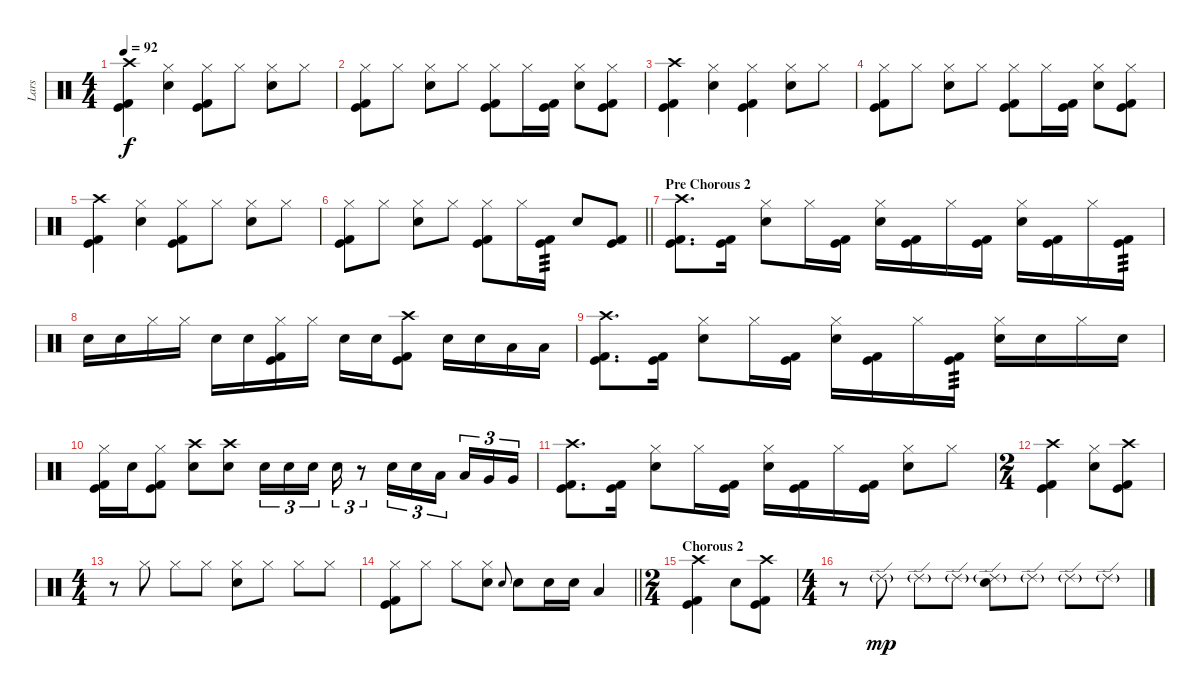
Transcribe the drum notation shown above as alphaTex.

\track ("Lars" "Lars") {instrument percussion}
\staff {score}
\articulation defaults
\ts (4 4)
\tempo 92
\clef neutral
\ks c
("Crash high (hit)" "Kick (hit)" "Kick (hit) 2").4{dy f} ("Hi-Hat (closed)" "Electric Snare (hit)").4 ("Hi-Hat (closed)" "Kick (hit)" "Kick (hit) 2").8 "Hi-Hat (closed)".8 ("Hi-Hat (closed)" "Electric Snare (hit)").8 "Hi-Hat (closed)".8 |
("Hi-Hat (closed)" "Kick (hit)" "Kick (hit) 2").8 "Hi-Hat (closed)".8 ("Hi-Hat (closed)" "Electric Snare (hit)").8 "Hi-Hat (closed)".8 ("Hi-Hat (closed)" "Kick (hit)" "Kick (hit) 2").8 "Hi-Hat (closed)".16 ("Kick (hit)" "Kick (hit) 2").16 ("Hi-Hat (closed)" "Electric Snare (hit)").8 ("Hi-Hat (closed)" "Kick (hit)" "Kick (hit) 2").8 |
("Crash high (hit)" "Kick (hit)" "Kick (hit) 2").4 ("Hi-Hat (closed)" "Electric Snare (hit)").4 ("Hi-Hat (closed)" "Kick (hit)" "Kick (hit) 2").4 ("Hi-Hat (closed)" "Electric Snare (hit)").8 "Hi-Hat (closed)".8 |
("Hi-Hat (closed)" "Kick (hit)" "Kick (hit) 2").8 "Hi-Hat (closed)".8 ("Hi-Hat (closed)" "Electric Snare (hit)").8 "Hi-Hat (closed)".8 ("Hi-Hat (closed)" "Kick (hit)" "Kick (hit) 2").8 "Hi-Hat (closed)".16 ("Kick (hit)" "Kick (hit) 2").16 ("Hi-Hat (closed)" "Electric Snare (hit)").8 ("Hi-Hat (closed)" "Kick (hit)" "Kick (hit) 2").8 |
("Crash high (hit)" "Kick (hit)" "Kick (hit) 2").4 ("Hi-Hat (closed)" "Electric Snare (hit)").4 ("Hi-Hat (closed)" "Kick (hit)" "Kick (hit) 2").8 "Hi-Hat (closed)".8 ("Hi-Hat (closed)" "Electric Snare (hit)").8 "Hi-Hat (closed)".8 |
\barLineRight lightlight
("Hi-Hat (closed)" "Kick (hit)" "Kick (hit) 2").8 "Hi-Hat (closed)".8 ("Hi-Hat (closed)" "Electric Snare (hit)").8 "Hi-Hat (closed)".8 ("Hi-Hat (closed)" "Kick (hit)" "Kick (hit) 2").8 "Hi-Hat (closed)".16 ("Kick (hit)" "Kick (hit) 2").16{tp 3} "Electric Snare (hit)".8 ("Kick (hit)" "Kick (hit) 2").8 |
\section ("" "Pre Chorous 2")
("Crash high (hit)" "Kick (hit)" "Kick (hit) 2").8{d} ("Kick (hit)" "Kick (hit) 2").16 ("Hi-Hat (closed)" "Electric Snare (hit)").8 "Hi-Hat (closed)".16 ("Kick (hit)" "Kick (hit) 2").16 ("Hi-Hat (closed)" "Electric Snare (hit)").16 ("Kick (hit)" "Kick (hit) 2").16 "Hi-Hat (closed)".16 ("Kick (hit)" "Kick (hit) 2").16 ("Hi-Hat (closed)" "Electric Snare (hit)").16 ("Kick (hit)" "Kick (hit) 2").16 "Hi-Hat (closed)".16 ("Kick (hit)" "Kick (hit) 2").16{tp 3} |
"Electric Snare (hit)".16 "Electric Snare (hit)".16 "Hi-Hat (closed)".16 "Hi-Hat (closed)".16 "Electric Snare (hit)".16 "Electric Snare (hit)".16 ("Hi-Hat (closed)" "Kick (hit)" "Kick (hit) 2").16 "Hi-Hat (closed)".16 "Electric Snare (hit)".16 "Electric Snare (hit)".16 ("Crash high (hit)" "Kick (hit)" "Kick (hit) 2").8 "Electric Snare (hit)".16 "Electric Snare (hit)".16 "Low Tom (hit)".16 "Low Tom (hit)".16 |
("Crash high (hit)" "Kick (hit)" "Kick (hit) 2").8{d} ("Kick (hit)" "Kick (hit) 2").16 ("Hi-Hat (closed)" "Electric Snare (hit)").8 "Hi-Hat (closed)".16 ("Kick (hit)" "Kick (hit) 2").16 ("Hi-Hat (closed)" "Electric Snare (hit)").16 ("Kick (hit)" "Kick (hit) 2").16 "Hi-Hat (closed)".16 ("Kick (hit)" "Kick (hit) 2").16{tp 3} ("Hi-Hat (closed)" "Electric Snare (hit)").16 "Electric Snare (hit)".16 "Hi-Hat (closed)".16 "Electric Snare (hit)".16 |
("Hi-Hat (closed)" "Kick (hit)" "Kick (hit) 2").16 "Electric Snare (hit)".16 ("Hi-Hat (closed)" "Kick (hit)" "Kick (hit) 2").8 ("Crash high (hit)" "Electric Snare (hit)").8 ("Crash high (hit)" "Electric Snare (hit)").8 "Electric Snare (hit)".16{tu (3 2)} "Electric Snare (hit)".16{tu (3 2)} "Electric Snare (hit)".16{tu (3 2) beam splitsecondary} "Electric Snare (hit)".16{tu (3 2)} r.8{tu (3 2)} "Electric Snare (hit)".16{tu (3 2)} "Electric Snare (hit)".16{tu (3 2)} "Low Tom (hit)".16{tu (3 2) beam splitsecondary} "Low Tom (hit)".16{tu (3 2)} "Very Low Tom (hit)".16{tu (3 2)} "Very Low Tom (hit)".16{tu (3 2)} |
("Crash high (hit)" "Kick (hit)" "Kick (hit) 2").8{d} ("Kick (hit)" "Kick (hit) 2").16 ("Hi-Hat (closed)" "Electric Snare (hit)").8 "Hi-Hat (closed)".16 ("Kick (hit)" "Kick (hit) 2").16 ("Hi-Hat (closed)" "Electric Snare (hit)").16 ("Kick (hit)" "Kick (hit) 2").16 "Hi-Hat (closed)".16 ("Kick (hit)" "Kick (hit) 2").16 ("Hi-Hat (closed)" "Electric Snare (hit)").8 "Hi-Hat (closed)".8 |
\ts (2 4)
("Crash high (hit)" "Kick (hit)" "Kick (hit) 2").4 ("Hi-Hat (closed)" "Electric Snare (hit)").8 ("Crash high (hit)" "Kick (hit)" "Kick (hit) 2").8 |
\ts (4 4)
r.8 "Hi-Hat (closed)".8 "Hi-Hat (closed)".8 "Hi-Hat (closed)".8 ("Hi-Hat (closed)" "Electric Snare (hit)").8 "Hi-Hat (closed)".8 "Hi-Hat (closed)".8 "Hi-Hat (closed)".8 |
\barLineRight lightlight
("Hi-Hat (closed)" "Kick (hit)" "Kick (hit) 2").8 "Hi-Hat (closed)".8 "Hi-Hat (closed)".8 ("Hi-Hat (closed)" "Electric Snare (hit)").8 "Electric Snare (hit)".8{gr onbeat} "Electric Snare (hit)".8 "Electric Snare (hit)".16 "Electric Snare (hit)".16 "Low Tom (hit)".4 |
\ts (2 4)
\section ("" "Chorous 2")
("Crash high (hit)" "Kick (hit)" "Kick (hit) 2").4 "Electric Snare (hit)".8 ("Crash high (hit)" "Kick (hit)" "Kick (hit) 2").8 |
\ts (4 4)
r.8 "Ride (edge) 2"{g}.8{dy mp} "Ride (edge) 2"{g}.8 "Ride (edge) 2"{g}.8 ("Ride (edge) 2"{g} "Electric Snare (hit)").8 "Ride (edge) 2"{g}.8 "Ride (edge) 2"{g}.8 "Ride (edge) 2"{g}.8
